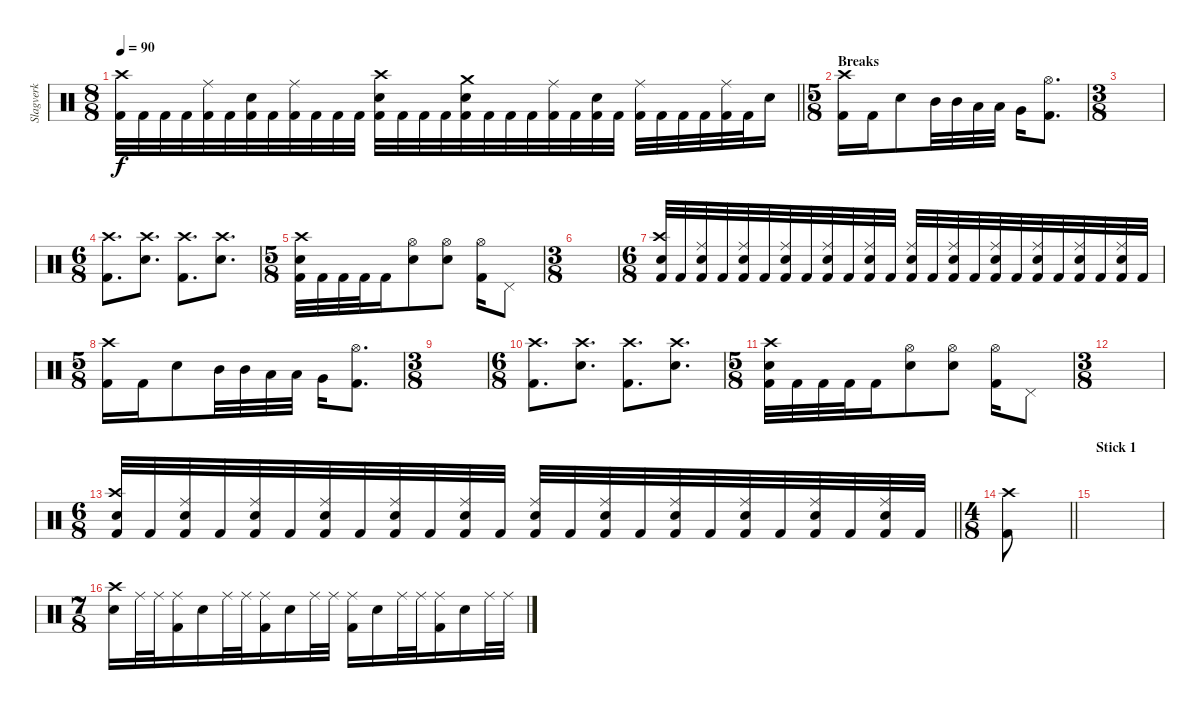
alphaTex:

\track ("Slagverk" "Slagverk") {instrument percussion}
\staff {score}
\articulation defaults
\ts (8 8)
\tempo 90
\clef neutral
\barLineRight lightlight
\ks c
("Kick (hit) 2" "Crash high (hit)").32{dy f} "Kick (hit) 2".32 "Kick (hit) 2".32 "Kick (hit) 2".32 ("Kick (hit) 2" "Ride (middle)").32 "Kick (hit) 2".32 ("Kick (hit) 2" "Snare (hit) 2").32 "Kick (hit) 2".32 ("Kick (hit) 2" "Ride (middle)").32 "Kick (hit) 2".32 "Kick (hit) 2".32 "Kick (hit) 2".32 ("Kick (hit) 2" "Crash high (hit)" "Snare (hit) 2").32 "Kick (hit) 2".32 "Kick (hit) 2".32 "Kick (hit) 2".32 ("Kick (hit) 2" "Crash medium (hit)" "Snare (hit) 2").32 "Kick (hit) 2".32 "Kick (hit) 2".32 "Kick (hit) 2".32 ("Kick (hit) 2" "Ride (middle)").32 "Kick (hit) 2".32 ("Kick (hit) 2" "Snare (hit) 2").32 "Kick (hit) 2".32 ("Kick (hit) 2" "Ride (middle)").32 "Kick (hit) 2".32 "Kick (hit) 2".32 "Kick (hit) 2".32 ("Kick (hit) 2" "Ride (middle)").32 "Kick (hit) 2".32 "Snare (hit) 2".16 |
\ts (5 8)
\section ("" "Breaks")
("Kick (hit) 2" "Crash high (hit)").16 "Kick (hit) 2".16 "Snare (hit) 2".8 "Mid Tom (hit)".32 "Mid Tom (hit)".32 "Low Tom (hit)".32 "Low Tom (hit)".32 "Very Low Tom (hit)".16 ("Kick (hit) 2" "Hi-Hat (open)").8{d} |
\ts (3 8)
|
\ts (6 8)
("Kick (hit) 2" "Crash high (hit)").8{d} ("Snare (hit) 2" "Crash high (hit)").8{d} ("Crash high (hit)" "Kick (hit) 2").8{d} ("Snare (hit) 2" "Crash high (hit)").8{d} |
\ts (5 8)
("Kick (hit) 2" "Crash high (hit)" "Snare (hit) 2").32 "Kick (hit) 2".32 "Kick (hit) 2".32 "Kick (hit) 2".32 "Kick (hit) 2".16 ("Snare (hit) 2" "Hi-Hat (open)").8 ("Snare (hit) 2" "Hi-Hat (open)").8 ("Kick (hit) 2" "Hi-Hat (open)").16 "Pedal Hi-Hat (hit)".8 |
\ts (3 8)
|
\ts (6 8)
("Kick (hit) 2" "Snare (hit) 2" "Crash high (hit)").32 "Kick (hit) 2".32 ("Snare (hit) 2" "Kick (hit) 2" "Ride (middle)").32 "Kick (hit) 2".32 ("Kick (hit) 2" "Snare (hit) 2" "Ride (middle)").32 "Kick (hit) 2".32 ("Kick (hit) 2" "Snare (hit) 2" "Ride (middle)").32 "Kick (hit) 2".32 ("Kick (hit) 2" "Snare (hit) 2" "Ride (middle)").32 "Kick (hit) 2".32 ("Kick (hit) 2" "Snare (hit) 2" "Ride (middle)").32 "Kick (hit) 2".32 ("Kick (hit) 2" "Snare (hit) 2" "Ride (middle)").32 "Kick (hit) 2".32 ("Kick (hit) 2" "Snare (hit) 2" "Ride (middle)").32 "Kick (hit) 2".32 ("Kick (hit) 2" "Snare (hit) 2" "Ride (middle)").32 "Kick (hit) 2".32 ("Kick (hit) 2" "Snare (hit) 2" "Ride (middle)").32 "Kick (hit) 2".32 ("Kick (hit) 2" "Snare (hit) 2" "Ride (middle)").32 "Kick (hit) 2".32 ("Kick (hit) 2" "Snare (hit) 2" "Ride (middle)").32 "Kick (hit) 2".32 |
\ts (5 8)
("Kick (hit) 2" "Crash high (hit)").16 "Kick (hit) 2".16 "Snare (hit) 2".8 "Mid Tom (hit)".32 "Mid Tom (hit)".32 "Low Tom (hit)".32 "Low Tom (hit)".32 "Very Low Tom (hit)".16 ("Kick (hit) 2" "Hi-Hat (open)").8{d} |
\ts (3 8)
|
\ts (6 8)
("Kick (hit) 2" "Crash high (hit)").8{d} ("Snare (hit) 2" "Crash high (hit)").8{d} ("Crash high (hit)" "Kick (hit) 2").8{d} ("Snare (hit) 2" "Crash high (hit)").8{d} |
\ts (5 8)
("Kick (hit) 2" "Crash high (hit)" "Snare (hit) 2").32 "Kick (hit) 2".32 "Kick (hit) 2".32 "Kick (hit) 2".32 "Kick (hit) 2".16 ("Snare (hit) 2" "Hi-Hat (open)").8 ("Snare (hit) 2" "Hi-Hat (open)").8 ("Kick (hit) 2" "Hi-Hat (open)").16 "Pedal Hi-Hat (hit)".8 |
\ts (3 8)
|
\ts (6 8)
\barLineRight lightlight
("Kick (hit) 2" "Snare (hit) 2" "Crash high (hit)").32 "Kick (hit) 2".32 ("Snare (hit) 2" "Kick (hit) 2" "Ride (middle)").32 "Kick (hit) 2".32 ("Kick (hit) 2" "Snare (hit) 2" "Ride (middle)").32 "Kick (hit) 2".32 ("Kick (hit) 2" "Snare (hit) 2" "Ride (middle)").32 "Kick (hit) 2".32 ("Kick (hit) 2" "Snare (hit) 2" "Ride (middle)").32 "Kick (hit) 2".32 ("Kick (hit) 2" "Snare (hit) 2" "Ride (middle)").32 "Kick (hit) 2".32 ("Kick (hit) 2" "Snare (hit) 2" "Ride (middle)").32 "Kick (hit) 2".32 ("Kick (hit) 2" "Snare (hit) 2" "Ride (middle)").32 "Kick (hit) 2".32 ("Kick (hit) 2" "Snare (hit) 2" "Ride (middle)").32 "Kick (hit) 2".32 ("Kick (hit) 2" "Snare (hit) 2" "Ride (middle)").32 "Kick (hit) 2".32 ("Kick (hit) 2" "Snare (hit) 2" "Ride (middle)").32 "Kick (hit) 2".32 ("Kick (hit) 2" "Snare (hit) 2" "Ride (middle)").32 "Kick (hit) 2".32 |
\ts (4 8)
\barLineRight lightlight
("Crash high (hit)" "Kick (hit) 2").8 |
\section ("" "Stick 1")
|
\ts (7 8)
("Crash high (hit)" "Snare (hit) 2").16 "Ride (middle)".32 "Ride (middle)".32 ("Ride (middle)" "Kick (hit) 2").16 "Snare (hit) 2".16 "Ride (middle)".32 "Ride (middle)".32 ("Ride (middle)" "Kick (hit) 2").16 "Snare (hit) 2".16 "Ride (middle)".32 "Ride (middle)".32 ("Ride (middle)" "Kick (hit) 2").16 "Snare (hit) 2".16 "Ride (middle)".32 "Ride (middle)".32 ("Ride (middle)" "Kick (hit) 2").16 "Snare (hit) 2".16 "Ride (middle)".32 "Ride (middle)".32
